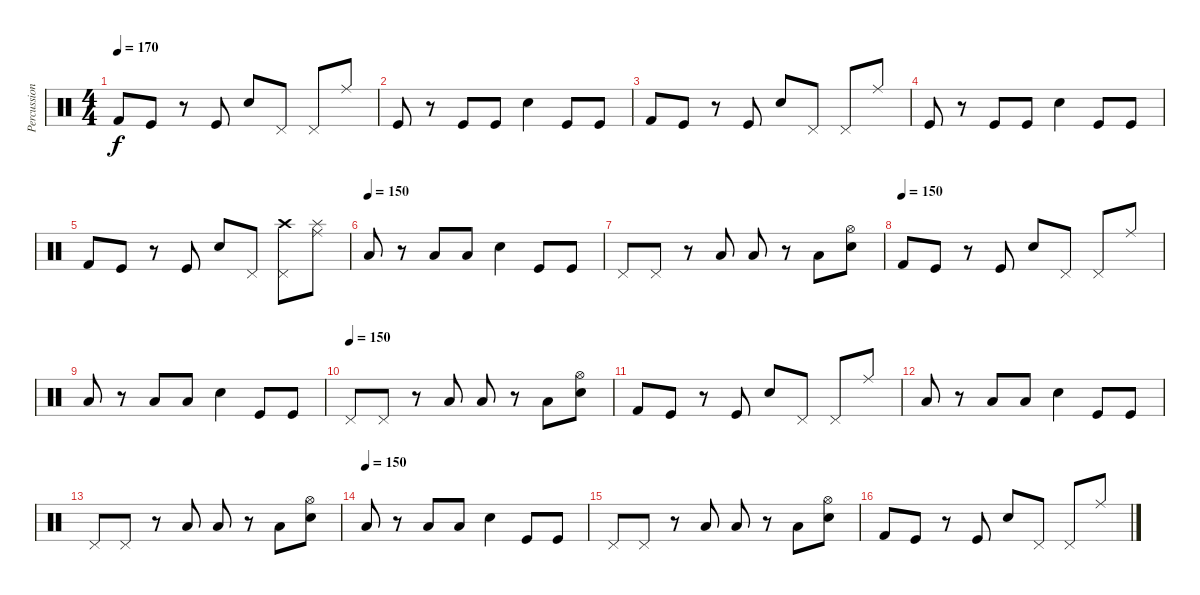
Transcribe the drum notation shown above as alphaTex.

\track ("Percussion" "Percussion") {instrument percussion}
\staff {score}
\articulation defaults
\ts (4 4)
\tempo 170
\clef neutral
\ks c "Kick (hit) 2".8{dy f} "Kick (hit)".8
r.8 "Kick (hit)".8 "Electric Snare (hit)".8 "Pedal Hi-Hat (hit)".8 "Pedal Hi-Hat (hit)".8 "Ride (middle)".8 |
"Kick (hit)".8 r.8 "Kick (hit)".8 "Kick (hit)".8 "Electric Snare (hit)".4 "Kick (hit)".8 "Kick (hit)".8 |
"Kick (hit) 2".8{volume 13} "Kick (hit)".8 r.8 "Kick (hit)".8 "Electric Snare (hit)".8 "Pedal Hi-Hat (hit)".8 "Pedal Hi-Hat (hit)".8 "Ride (middle)".8 |
"Kick (hit)".8 r.8 "Kick (hit)".8 "Kick (hit)".8 "Electric Snare (hit)".4 "Kick (hit)".8 "Kick (hit)".8 |
"Kick (hit) 2".8 "Kick (hit)".8 r.8 "Kick (hit)".8 "Electric Snare (hit)".8 "Pedal Hi-Hat (hit)".8 ("Crash high (hit)" "Pedal Hi-Hat (hit)").8 ("Splash (hit)" "Ride (middle)").8 |
\tempo (150)
"Low Tom (hit)".8{volume 12} r.8 "Low Floor Tom (hit)".8 "Low Floor Tom (hit)".8 "Snare (hit) 2".4 "Kick (hit)".8 "Kick (hit)".8 |
"Pedal Hi-Hat (hit)".8 "Pedal Hi-Hat (hit)".8 r.8 "Low Floor Tom (hit)".8 "Low Floor Tom (hit)".8 r.8 "Low Tom (hit)".8 ("Hi-Hat (open)" "Snare (hit) 2").8 |
\tempo (150)
"Kick (hit) 2".8{volume 10} "Kick (hit)".8 r.8 "Kick (hit)".8 "Electric Snare (hit)".8 "Pedal Hi-Hat (hit)".8 "Pedal Hi-Hat (hit)".8 "Ride (middle)".8 |
"Low Tom (hit)".8{volume 12} r.8 "Low Floor Tom (hit)".8 "Low Floor Tom (hit)".8 "Snare (hit) 2".4 "Kick (hit)".8 "Kick (hit)".8 |
\tempo (150)
"Pedal Hi-Hat (hit)".8 "Pedal Hi-Hat (hit)".8 r.8 "Low Floor Tom (hit)".8 "Low Floor Tom (hit)".8 r.8 "Low Tom (hit)".8 ("Hi-Hat (open)" "Snare (hit) 2").8 |
"Kick (hit) 2".8{volume 10} "Kick (hit)".8 r.8 "Kick (hit)".8 "Electric Snare (hit)".8 "Pedal Hi-Hat (hit)".8 "Pedal Hi-Hat (hit)".8 "Ride (middle)".8 |
"Low Tom (hit)".8{volume 12} r.8 "Low Floor Tom (hit)".8 "Low Floor Tom (hit)".8 "Snare (hit) 2".4 "Kick (hit)".8 "Kick (hit)".8 |
"Pedal Hi-Hat (hit)".8 "Pedal Hi-Hat (hit)".8 r.8 "Low Floor Tom (hit)".8 "Low Floor Tom (hit)".8 r.8 "Low Tom (hit)".8 ("Hi-Hat (open)" "Snare (hit) 2").8 |
\tempo (150)
"Low Tom (hit)".8{volume 12} r.8 "Low Floor Tom (hit)".8 "Low Floor Tom (hit)".8 "Snare (hit) 2".4 "Kick (hit)".8 "Kick (hit)".8 |
"Pedal Hi-Hat (hit)".8 "Pedal Hi-Hat (hit)".8 r.8 "Low Floor Tom (hit)".8 "Low Floor Tom (hit)".8 r.8 "Low Tom (hit)".8 ("Hi-Hat (open)" "Snare (hit) 2").8 |
"Kick (hit) 2".8{volume 10} "Kick (hit)".8 r.8 "Kick (hit)".8 "Electric Snare (hit)".8 "Pedal Hi-Hat (hit)".8 "Pedal Hi-Hat (hit)".8 "Ride (middle)".8
